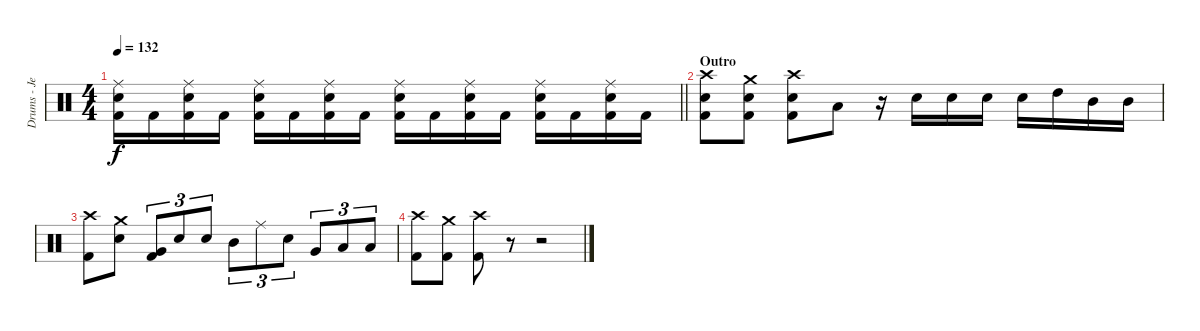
\track ("Drums - Jeroen" "Drums - Je") {instrument percussion}
\staff {score}
\articulation defaults
\ts (4 4)
\tempo 132
\clef neutral
\barLineRight lightlight
\ks c
("Ride (middle)" "Electric Snare (hit)" "Kick (hit) 2").16{dy f} "Kick (hit) 2".16 ("Ride (middle)" "Electric Snare (hit)" "Kick (hit) 2").16 "Kick (hit) 2".16 ("Ride (middle)" "Electric Snare (hit)" "Kick (hit) 2").16 "Kick (hit) 2".16 ("Ride (middle)" "Electric Snare (hit)" "Kick (hit) 2").16 "Kick (hit) 2".16 ("Ride (middle)" "Electric Snare (hit)" "Kick (hit) 2").16 "Kick (hit) 2".16 ("Ride (middle)" "Electric Snare (hit)" "Kick (hit) 2").16 "Kick (hit) 2".16 ("Ride (middle)" "Electric Snare (hit)" "Kick (hit) 2").16 "Kick (hit) 2".16 ("Ride (middle)" "Electric Snare (hit)" "Kick (hit) 2").16 "Kick (hit) 2".16 |
\section ("" "Outro")
("Crash high (hit)" "Electric Snare (hit)" "Kick (hit) 2").8 ("Crash medium (hit)" "Electric Snare (hit)" "Kick (hit) 2").8 ("Crash high (hit)" "Electric Snare (hit)" "Kick (hit) 2").8 "Low Floor Tom (hit)".8 r.16 "Electric Snare (hit)".16 "Electric Snare (hit)".16 "Electric Snare (hit)".16 "Electric Snare (hit)".16 "High Tom (hit)".16 "Mid Tom (hit)".16 "Mid Tom (hit)".16 |
("Crash high (hit)" "Kick (hit) 2").8 ("Crash medium (hit)" "Electric Snare (hit)").8 ("Very Low Tom (hit)" "Kick (hit) 2").8{tu (3 2)} "Electric Snare (hit)".8{tu (3 2)} "Electric Snare (hit)".8{tu (3 2)} "Mid Tom (hit)".8{tu (3 2)} "Ride (middle)".8{tu (3 2)} "Electric Snare (hit)".8{tu (3 2)} "Very Low Tom (hit)".8{tu (3 2)} "Low Floor Tom (hit)".8{tu (3 2)} "Low Floor Tom (hit)".8{tu (3 2)} |
("Crash high (hit)" "Kick (hit) 2").8 ("Crash medium (hit)" "Kick (hit) 2").8 ("Crash high (hit)" "Kick (hit) 2").8 r.8 r.2
